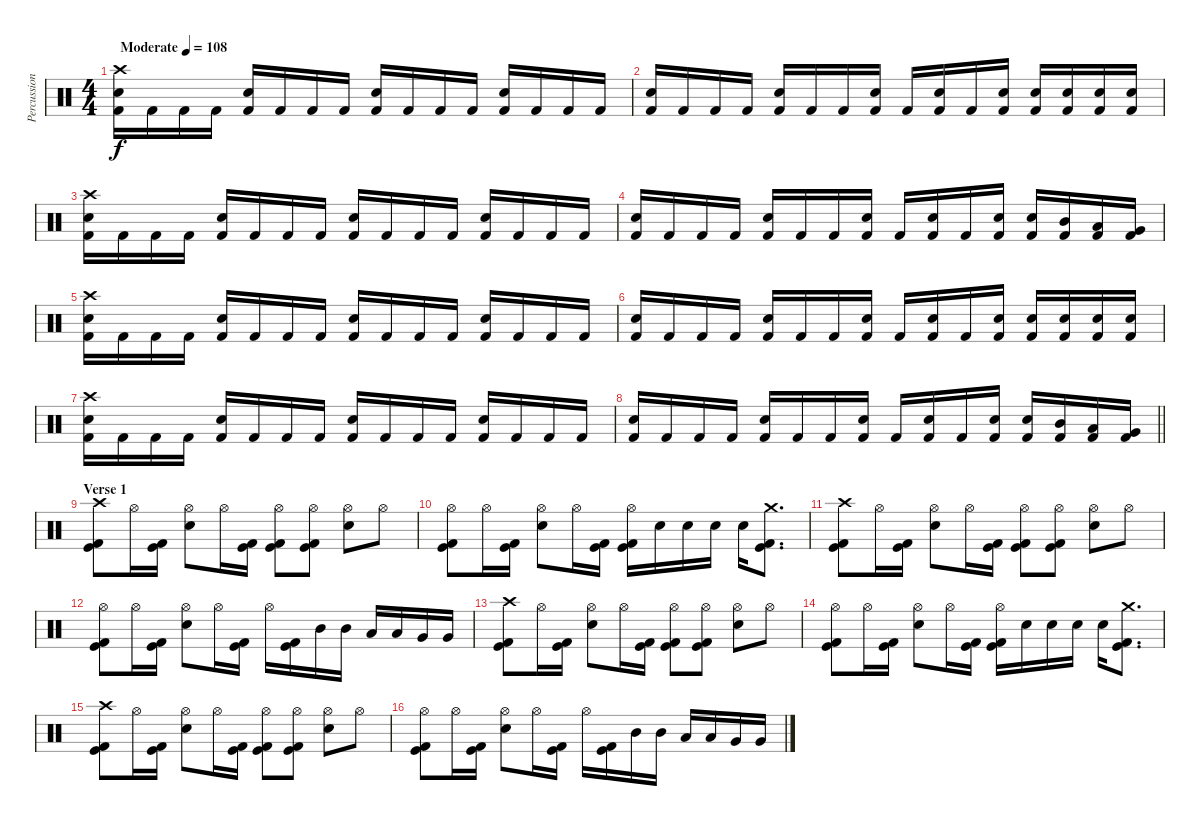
\track ("Percussion" "Percussion") {instrument percussion}
\staff {score}
\articulation defaults
\ts (4 4)
\tempo (108 "Moderate")
\clef neutral
\ks c
("Crash high (hit)" "Electric Snare (hit)" "Kick (hit) 2").16{dy f} "Kick (hit) 2".16 "Kick (hit) 2".16 "Kick (hit) 2".16 ("Electric Snare (hit)" "Kick (hit) 2").16 "Kick (hit) 2".16 "Kick (hit) 2".16 "Kick (hit) 2".16 ("Electric Snare (hit)" "Kick (hit) 2").16 "Kick (hit) 2".16 "Kick (hit) 2".16 "Kick (hit) 2".16 ("Electric Snare (hit)" "Kick (hit) 2").16 "Kick (hit) 2".16 "Kick (hit) 2".16 "Kick (hit) 2".16 |
("Electric Snare (hit)" "Kick (hit) 2").16 "Kick (hit) 2".16 "Kick (hit) 2".16 "Kick (hit) 2".16 ("Electric Snare (hit)" "Kick (hit) 2").16 "Kick (hit) 2".16 "Kick (hit) 2".16 ("Electric Snare (hit)" "Kick (hit) 2").16 "Kick (hit) 2".16 ("Electric Snare (hit)" "Kick (hit) 2").16 "Kick (hit) 2".16 ("Electric Snare (hit)" "Kick (hit) 2").16 ("Electric Snare (hit)" "Kick (hit) 2").16 ("Electric Snare (hit)" "Kick (hit) 2").16 ("Electric Snare (hit)" "Kick (hit) 2").16 ("Electric Snare (hit)" "Kick (hit) 2").16 |
("Crash high (hit)" "Electric Snare (hit)" "Kick (hit) 2").16 "Kick (hit) 2".16 "Kick (hit) 2".16 "Kick (hit) 2".16 ("Electric Snare (hit)" "Kick (hit) 2").16 "Kick (hit) 2".16 "Kick (hit) 2".16 "Kick (hit) 2".16 ("Electric Snare (hit)" "Kick (hit) 2").16 "Kick (hit) 2".16 "Kick (hit) 2".16 "Kick (hit) 2".16 ("Electric Snare (hit)" "Kick (hit) 2").16 "Kick (hit) 2".16 "Kick (hit) 2".16 "Kick (hit) 2".16 |
("Electric Snare (hit)" "Kick (hit) 2").16 "Kick (hit) 2".16 "Kick (hit) 2".16 "Kick (hit) 2".16 ("Electric Snare (hit)" "Kick (hit) 2").16 "Kick (hit) 2".16 "Kick (hit) 2".16 ("Electric Snare (hit)" "Kick (hit) 2").16 "Kick (hit) 2".16 ("Electric Snare (hit)" "Kick (hit) 2").16 "Kick (hit) 2".16 ("Electric Snare (hit)" "Kick (hit) 2").16 ("Electric Snare (hit)" "Kick (hit) 2").16 ("Kick (hit) 2" "Mid Tom (hit)").16 ("Kick (hit) 2" "Low Tom (hit)").16 ("Kick (hit) 2" "Very Low Tom (hit)").16 |
("Crash high (hit)" "Electric Snare (hit)" "Kick (hit) 2").16 "Kick (hit) 2".16 "Kick (hit) 2".16 "Kick (hit) 2".16 ("Electric Snare (hit)" "Kick (hit) 2").16 "Kick (hit) 2".16 "Kick (hit) 2".16 "Kick (hit) 2".16 ("Electric Snare (hit)" "Kick (hit) 2").16 "Kick (hit) 2".16 "Kick (hit) 2".16 "Kick (hit) 2".16 ("Electric Snare (hit)" "Kick (hit) 2").16 "Kick (hit) 2".16 "Kick (hit) 2".16 "Kick (hit) 2".16 |
("Electric Snare (hit)" "Kick (hit) 2").16 "Kick (hit) 2".16 "Kick (hit) 2".16 "Kick (hit) 2".16 ("Electric Snare (hit)" "Kick (hit) 2").16 "Kick (hit) 2".16 "Kick (hit) 2".16 ("Electric Snare (hit)" "Kick (hit) 2").16 "Kick (hit) 2".16 ("Electric Snare (hit)" "Kick (hit) 2").16 "Kick (hit) 2".16 ("Electric Snare (hit)" "Kick (hit) 2").16 ("Electric Snare (hit)" "Kick (hit) 2").16 ("Electric Snare (hit)" "Kick (hit) 2").16 ("Electric Snare (hit)" "Kick (hit) 2").16 ("Electric Snare (hit)" "Kick (hit) 2").16 |
("Crash high (hit)" "Electric Snare (hit)" "Kick (hit) 2").16 "Kick (hit) 2".16 "Kick (hit) 2".16 "Kick (hit) 2".16 ("Electric Snare (hit)" "Kick (hit) 2").16 "Kick (hit) 2".16 "Kick (hit) 2".16 "Kick (hit) 2".16 ("Electric Snare (hit)" "Kick (hit) 2").16 "Kick (hit) 2".16 "Kick (hit) 2".16 "Kick (hit) 2".16 ("Electric Snare (hit)" "Kick (hit) 2").16 "Kick (hit) 2".16 "Kick (hit) 2".16 "Kick (hit) 2".16 |
\barLineRight lightlight
("Electric Snare (hit)" "Kick (hit) 2").16 "Kick (hit) 2".16 "Kick (hit) 2".16 "Kick (hit) 2".16 ("Electric Snare (hit)" "Kick (hit) 2").16 "Kick (hit) 2".16 "Kick (hit) 2".16 ("Electric Snare (hit)" "Kick (hit) 2").16 "Kick (hit) 2".16 ("Electric Snare (hit)" "Kick (hit) 2").16 "Kick (hit) 2".16 ("Electric Snare (hit)" "Kick (hit) 2").16 ("Electric Snare (hit)" "Kick (hit) 2").16 ("Kick (hit) 2" "Mid Tom (hit)").16 ("Kick (hit) 2" "Low Tom (hit)").16 ("Kick (hit) 2" "Very Low Tom (hit)").16 |
\section ("" "Verse 1")
("Crash high (hit)" "Kick (hit)" "Kick (hit) 2").8 "Hi-Hat (open)".16 ("Kick (hit)" "Kick (hit) 2").16 ("Hi-Hat (open)" "Electric Snare (hit)").8 "Hi-Hat (open)".16 ("Kick (hit)" "Kick (hit) 2").16 ("Hi-Hat (open)" "Kick (hit)" "Kick (hit) 2").8 ("Hi-Hat (open)" "Kick (hit)" "Kick (hit) 2").8 ("Hi-Hat (open)" "Electric Snare (hit)").8 "Hi-Hat (open)".8 |
("Hi-Hat (open)" "Kick (hit)" "Kick (hit) 2").8 "Hi-Hat (open)".16 ("Kick (hit)" "Kick (hit) 2").16 ("Hi-Hat (open)" "Electric Snare (hit)").8 "Hi-Hat (open)".16 ("Kick (hit)" "Kick (hit) 2").16 ("Hi-Hat (open)" "Kick (hit)" "Kick (hit) 2").16 "Electric Snare (hit)".16 "Electric Snare (hit)".16 "Electric Snare (hit)".16 "Electric Snare (hit)".16 ("Crash medium (hit)" "Kick (hit)" "Kick (hit) 2").8{d} |
("Crash high (hit)" "Kick (hit)" "Kick (hit) 2").8 "Hi-Hat (open)".16 ("Kick (hit)" "Kick (hit) 2").16 ("Hi-Hat (open)" "Electric Snare (hit)").8 "Hi-Hat (open)".16 ("Kick (hit)" "Kick (hit) 2").16 ("Hi-Hat (open)" "Kick (hit)" "Kick (hit) 2").8 ("Hi-Hat (open)" "Kick (hit)" "Kick (hit) 2").8 ("Hi-Hat (open)" "Electric Snare (hit)").8 "Hi-Hat (open)".8 |
("Hi-Hat (open)" "Kick (hit)" "Kick (hit) 2").8 "Hi-Hat (open)".16 ("Kick (hit)" "Kick (hit) 2").16 ("Hi-Hat (open)" "Electric Snare (hit)").8 "Hi-Hat (open)".16 ("Kick (hit)" "Kick (hit) 2").16 "Hi-Hat (open)".16 ("Kick (hit)" "Kick (hit) 2").16 "Mid Tom (hit)".16 "Mid Tom (hit)".16 "Low Tom (hit)".16 "Low Tom (hit)".16 "Very Low Tom (hit)".16 "Very Low Tom (hit)".16 |
("Crash high (hit)" "Kick (hit)" "Kick (hit) 2").8 "Hi-Hat (open)".16 ("Kick (hit)" "Kick (hit) 2").16 ("Hi-Hat (open)" "Electric Snare (hit)").8 "Hi-Hat (open)".16 ("Kick (hit)" "Kick (hit) 2").16 ("Hi-Hat (open)" "Kick (hit)" "Kick (hit) 2").8 ("Hi-Hat (open)" "Kick (hit)" "Kick (hit) 2").8 ("Hi-Hat (open)" "Electric Snare (hit)").8 "Hi-Hat (open)".8 |
("Hi-Hat (open)" "Kick (hit)" "Kick (hit) 2").8 "Hi-Hat (open)".16 ("Kick (hit)" "Kick (hit) 2").16 ("Hi-Hat (open)" "Electric Snare (hit)").8 "Hi-Hat (open)".16 ("Kick (hit)" "Kick (hit) 2").16 ("Hi-Hat (open)" "Kick (hit)" "Kick (hit) 2").16 "Electric Snare (hit)".16 "Electric Snare (hit)".16 "Electric Snare (hit)".16 "Electric Snare (hit)".16 ("Crash medium (hit)" "Kick (hit)" "Kick (hit) 2").8{d} |
("Crash high (hit)" "Kick (hit)" "Kick (hit) 2").8 "Hi-Hat (open)".16 ("Kick (hit)" "Kick (hit) 2").16 ("Hi-Hat (open)" "Electric Snare (hit)").8 "Hi-Hat (open)".16 ("Kick (hit)" "Kick (hit) 2").16 ("Hi-Hat (open)" "Kick (hit)" "Kick (hit) 2").8 ("Hi-Hat (open)" "Kick (hit)" "Kick (hit) 2").8 ("Hi-Hat (open)" "Electric Snare (hit)").8 "Hi-Hat (open)".8 |
("Hi-Hat (open)" "Kick (hit)" "Kick (hit) 2").8 "Hi-Hat (open)".16 ("Kick (hit)" "Kick (hit) 2").16 ("Hi-Hat (open)" "Electric Snare (hit)").8 "Hi-Hat (open)".16 ("Kick (hit)" "Kick (hit) 2").16 "Hi-Hat (open)".16 ("Kick (hit)" "Kick (hit) 2").16 "Mid Tom (hit)".16 "Mid Tom (hit)".16 "Low Tom (hit)".16 "Low Tom (hit)".16 "Very Low Tom (hit)".16 "Very Low Tom (hit)".16
